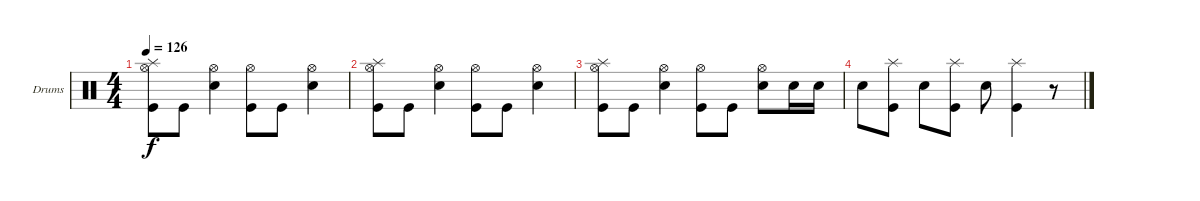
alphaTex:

\bracketExtendMode groupsimilarinstruments
\firstSystemTrackNameOrientation horizontal
\otherSystemsTrackNameOrientation horizontal
\track ("Drumkit" "Drums") {instrument percussion}
\staff {score}
\articulation defaults
\ts (4 4)
\tempo 126
\clef neutral
\ks c
("Kick (hit)" "Hi-Hat (open)" "Splash (hit)").8{dy f} "Kick (hit)".8 ("Snare (hit) 2" "Hi-Hat (open)").4 ("Kick (hit)" "Hi-Hat (open)").8 "Kick (hit)".8 ("Snare (hit) 2" "Hi-Hat (open)").4 |
("Kick (hit)" "Hi-Hat (open)" "Splash (hit)").8 "Kick (hit)".8 ("Snare (hit) 2" "Hi-Hat (open)").4 ("Kick (hit)" "Hi-Hat (open)").8 "Kick (hit)".8 ("Snare (hit) 2" "Hi-Hat (open)").4 |
("Kick (hit)" "Hi-Hat (open)" "Splash (hit)").8 "Kick (hit)".8 ("Snare (hit) 2" "Hi-Hat (open)").4 ("Kick (hit)" "Hi-Hat (open)").8 "Kick (hit)".8 ("Snare (hit) 2" "Hi-Hat (open)").8 "Snare (hit) 2".16 "Snare (hit) 2".16 |
"Snare (hit) 2".8 ("Kick (hit)" "Splash (hit)").8 "Snare (hit) 2".8 ("Kick (hit)" "Splash (hit)").8 "Snare (hit) 2".8 ("Kick (hit)" "Splash (hit)").4 r.8
